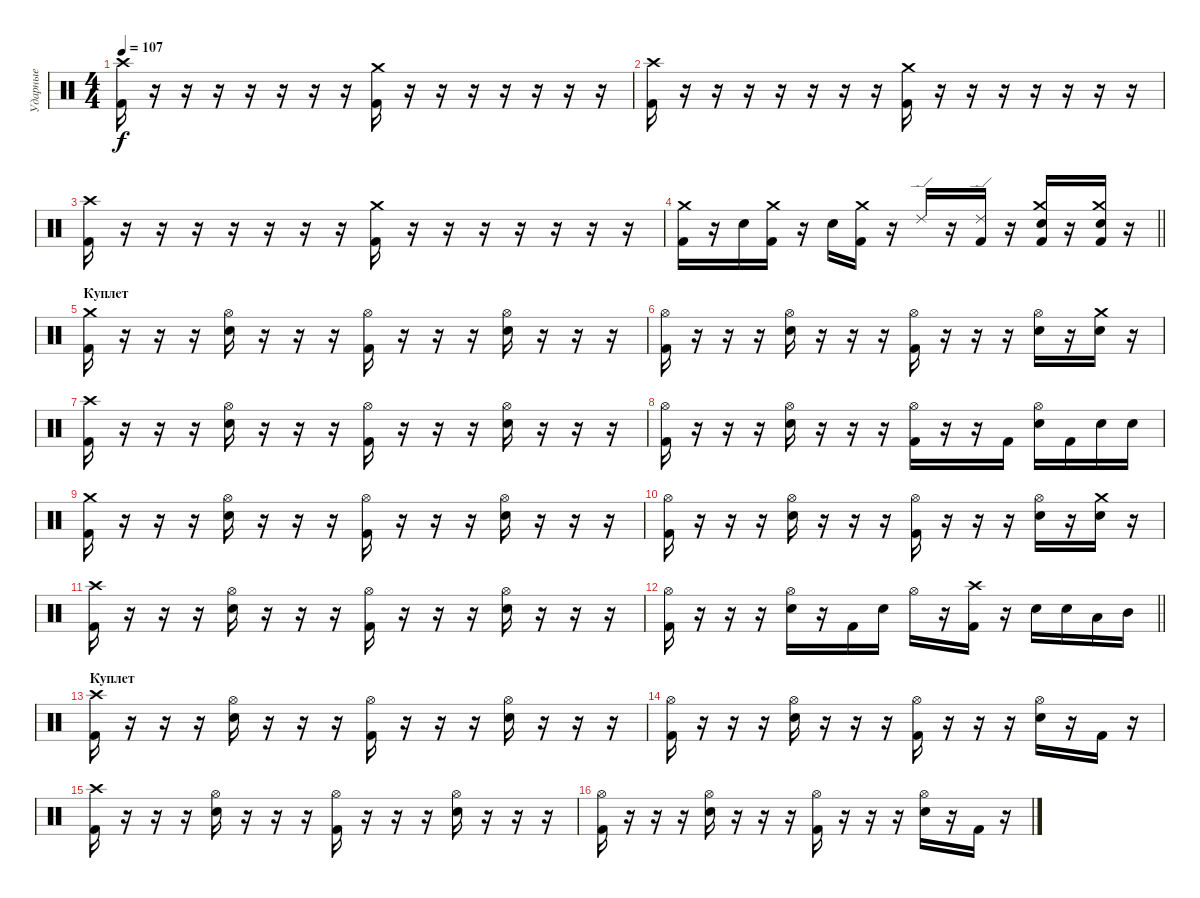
\track ("Ударные" "Ударные") {instrument percussion}
\staff {score}
\articulation defaults
\ts (4 4)
\tempo 107
\clef neutral
\ks c
("Crash high (hit)" "Kick (hit) 2").16{dy f} r.16 r.16 r.16 r.16 r.16 r.16 r.16 ("Crash medium (hit)" "Kick (hit) 2").16 r.16 r.16 r.16 r.16 r.16 r.16 r.16 |
("Crash high (hit)" "Kick (hit) 2").16 r.16 r.16 r.16 r.16 r.16 r.16 r.16 ("Crash medium (hit)" "Kick (hit) 2").16 r.16 r.16 r.16 r.16 r.16 r.16 r.16 |
("Crash high (hit)" "Kick (hit) 2").16 r.16 r.16 r.16 r.16 r.16 r.16 r.16 ("Crash medium (hit)" "Kick (hit) 2").16 r.16 r.16 r.16 r.16 r.16 r.16 r.16 |
\barLineRight lightlight
("Crash medium (hit)" "Kick (hit) 2").16 r.16 "Electric Snare (hit)".16 ("Crash medium (hit)" "Kick (hit) 2").16 r.16 "Electric Snare (hit)".16 ("Crash medium (hit)" "Kick (hit) 2").16 r.16 "Ride (edge) 2".16 r.16 ("Ride (edge) 2" "Kick (hit) 2").16 r.16 ("Crash medium (hit)" "Electric Snare (hit)" "Kick (hit) 2").16 r.16 ("Crash medium (hit)" "Electric Snare (hit)" "Kick (hit) 2").16 r.16 |
\section ("" "Куплет")
("Crash medium (hit)" "Kick (hit) 2").16 r.16 r.16 r.16 ("Hi-Hat (open)" "Electric Snare (hit)").16 r.16 r.16 r.16 ("Hi-Hat (open)" "Kick (hit) 2").16 r.16 r.16 r.16 ("Hi-Hat (open)" "Electric Snare (hit)").16 r.16 r.16 r.16 |
("Hi-Hat (open)" "Kick (hit) 2").16 r.16 r.16 r.16 ("Hi-Hat (open)" "Electric Snare (hit)").16 r.16 r.16 r.16 ("Hi-Hat (open)" "Kick (hit) 2").16 r.16 r.16 r.16 ("Hi-Hat (open)" "Electric Snare (hit)").16 r.16 ("Crash medium (hit)" "Electric Snare (hit)").16 r.16 |
("Crash high (hit)" "Kick (hit) 2").16 r.16 r.16 r.16 ("Hi-Hat (open)" "Electric Snare (hit)").16 r.16 r.16 r.16 ("Hi-Hat (open)" "Kick (hit) 2").16 r.16 r.16 r.16 ("Hi-Hat (open)" "Electric Snare (hit)").16 r.16 r.16 r.16 |
("Hi-Hat (open)" "Kick (hit) 2").16 r.16 r.16 r.16 ("Hi-Hat (open)" "Electric Snare (hit)").16 r.16 r.16 r.16 ("Hi-Hat (open)" "Kick (hit) 2").16 r.16 r.16 "Kick (hit) 2".16 ("Hi-Hat (open)" "Electric Snare (hit)").16 "Kick (hit) 2".16 "Electric Snare (hit)".16 "Electric Snare (hit)".16 |
("Crash medium (hit)" "Kick (hit) 2").16 r.16 r.16 r.16 ("Hi-Hat (open)" "Electric Snare (hit)").16 r.16 r.16 r.16 ("Hi-Hat (open)" "Kick (hit) 2").16 r.16 r.16 r.16 ("Hi-Hat (open)" "Electric Snare (hit)").16 r.16 r.16 r.16 |
("Hi-Hat (open)" "Kick (hit) 2").16 r.16 r.16 r.16 ("Hi-Hat (open)" "Electric Snare (hit)").16 r.16 r.16 r.16 ("Hi-Hat (open)" "Kick (hit) 2").16 r.16 r.16 r.16 ("Hi-Hat (open)" "Electric Snare (hit)").16 r.16 ("Crash medium (hit)" "Electric Snare (hit)").16 r.16 |
("Crash high (hit)" "Kick (hit) 2").16 r.16 r.16 r.16 ("Hi-Hat (open)" "Electric Snare (hit)").16 r.16 r.16 r.16 ("Hi-Hat (open)" "Kick (hit) 2").16 r.16 r.16 r.16 ("Hi-Hat (open)" "Electric Snare (hit)").16 r.16 r.16 r.16 |
\barLineRight lightlight
("Hi-Hat (open)" "Kick (hit) 2").16 r.16 r.16 r.16 ("Hi-Hat (open)" "Electric Snare (hit)").16 r.16 "Kick (hit) 2".16 "Electric Snare (hit)".16 "Hi-Hat (open)".16 r.16 ("Crash high (hit)" "Kick (hit) 2").16 r.16 "Electric Snare (hit)".16 "Electric Snare (hit)".16 "Low Tom (hit)".16 "Mid Tom (hit)".16 |
\section ("" "Куплет")
("Crash high (hit)" "Kick (hit) 2").16 r.16 r.16 r.16 ("Hi-Hat (open)" "Electric Snare (hit)").16 r.16 r.16 r.16 ("Hi-Hat (open)" "Kick (hit) 2").16 r.16 r.16 r.16 ("Hi-Hat (open)" "Electric Snare (hit)").16 r.16 r.16 r.16 |
("Hi-Hat (open)" "Kick (hit) 2").16 r.16 r.16 r.16 ("Hi-Hat (open)" "Electric Snare (hit)").16 r.16 r.16 r.16 ("Hi-Hat (open)" "Kick (hit) 2").16 r.16 r.16 r.16 ("Hi-Hat (open)" "Electric Snare (hit)").16 r.16 "Kick (hit) 2".16 r.16 |
("Crash high (hit)" "Kick (hit) 2").16 r.16 r.16 r.16 ("Hi-Hat (open)" "Electric Snare (hit)").16 r.16 r.16 r.16 ("Hi-Hat (open)" "Kick (hit) 2").16 r.16 r.16 r.16 ("Hi-Hat (open)" "Electric Snare (hit)").16 r.16 r.16 r.16 |
("Hi-Hat (open)" "Kick (hit) 2").16 r.16 r.16 r.16 ("Hi-Hat (open)" "Electric Snare (hit)").16 r.16 r.16 r.16 ("Hi-Hat (open)" "Kick (hit) 2").16 r.16 r.16 r.16 ("Hi-Hat (open)" "Electric Snare (hit)").16 r.16 "Kick (hit) 2".16 r.16
